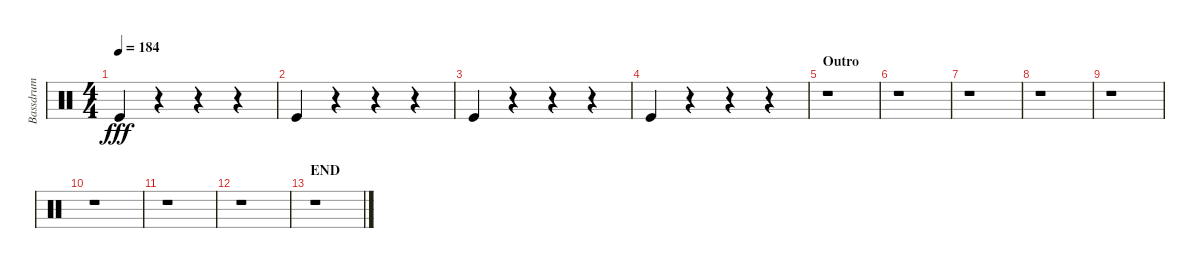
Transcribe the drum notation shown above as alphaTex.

\track ("Bassdrum" "Bassdrum") {instrument percussion}
\staff {score}
\articulation defaults
\ts (4 4)
\tempo 184
\clef neutral
\ks c "Kick (hit)".4{dy fff}
r.4 r.4 r.4 |
"Kick (hit)".4 r.4 r.4 r.4 |
"Kick (hit)".4 r.4 r.4 r.4 |
"Kick (hit)".4 r.4 r.4 r.4 |
\section ("" "Outro")
r.1 |
r.1 |
r.1 |
r.1 |
r.1 |
r.1 |
r.1 |
r.1 |
\section ("" "END")
r.1
